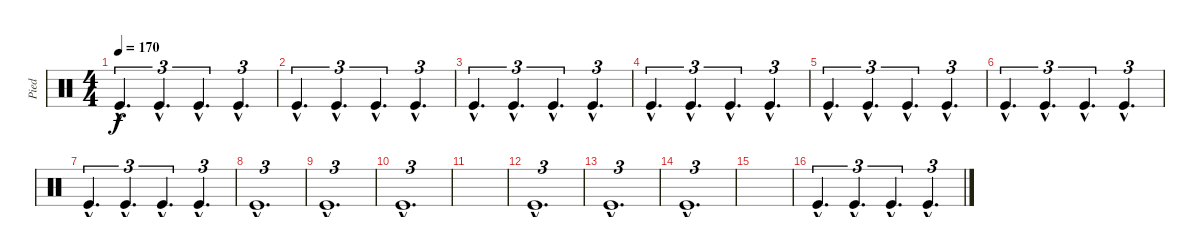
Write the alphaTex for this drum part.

\track ("Pied" "Pied") {instrument percussion}
\staff {score}
\articulation defaults
\ts (4 4)
\tempo 170
\clef neutral
\ks c "Kick (hit)"{hac}.4{d tu (3 2) dy f} "Kick (hit)"{hac}.4{d tu (3 2)} "Kick (hit)"{hac}.4{d tu (3 2)} "Kick (hit)"{hac}.4{d tu (3 2)}
|
"Kick (hit)"{hac}.4{d tu (3 2)} "Kick (hit)"{hac}.4{d tu (3 2)} "Kick (hit)"{hac}.4{d tu (3 2)} "Kick (hit)"{hac}.4{d tu (3 2)} |
"Kick (hit)"{hac}.4{d tu (3 2)} "Kick (hit)"{hac}.4{d tu (3 2)} "Kick (hit)"{hac}.4{d tu (3 2)} "Kick (hit)"{hac}.4{d tu (3 2)} |
"Kick (hit)"{hac}.4{d tu (3 2)} "Kick (hit)"{hac}.4{d tu (3 2)} "Kick (hit)"{hac}.4{d tu (3 2)} "Kick (hit)"{hac}.4{d tu (3 2)} |
"Kick (hit)"{hac}.4{d tu (3 2)} "Kick (hit)"{hac}.4{d tu (3 2)} "Kick (hit)"{hac}.4{d tu (3 2)} "Kick (hit)"{hac}.4{d tu (3 2)} |
"Kick (hit)"{hac}.4{d tu (3 2)} "Kick (hit)"{hac}.4{d tu (3 2)} "Kick (hit)"{hac}.4{d tu (3 2)} "Kick (hit)"{hac}.4{d tu (3 2)} |
"Kick (hit)"{hac}.4{d tu (3 2)} "Kick (hit)"{hac}.4{d tu (3 2)} "Kick (hit)"{hac}.4{d tu (3 2)} "Kick (hit)"{hac}.4{d tu (3 2)} |
"Kick (hit)"{hac}.1{d tu (3 2)} |
"Kick (hit)"{hac}.1{d tu (3 2)} |
"Kick (hit)"{hac}.1{d tu (3 2)} |
|
"Kick (hit)"{hac}.1{d tu (3 2)} |
"Kick (hit)"{hac}.1{d tu (3 2)} |
"Kick (hit)"{hac}.1{d tu (3 2)} |
|
"Kick (hit)"{hac}.4{d tu (3 2)} "Kick (hit)"{hac}.4{d tu (3 2)} "Kick (hit)"{hac}.4{d tu (3 2)} "Kick (hit)"{hac}.4{d tu (3 2)}
